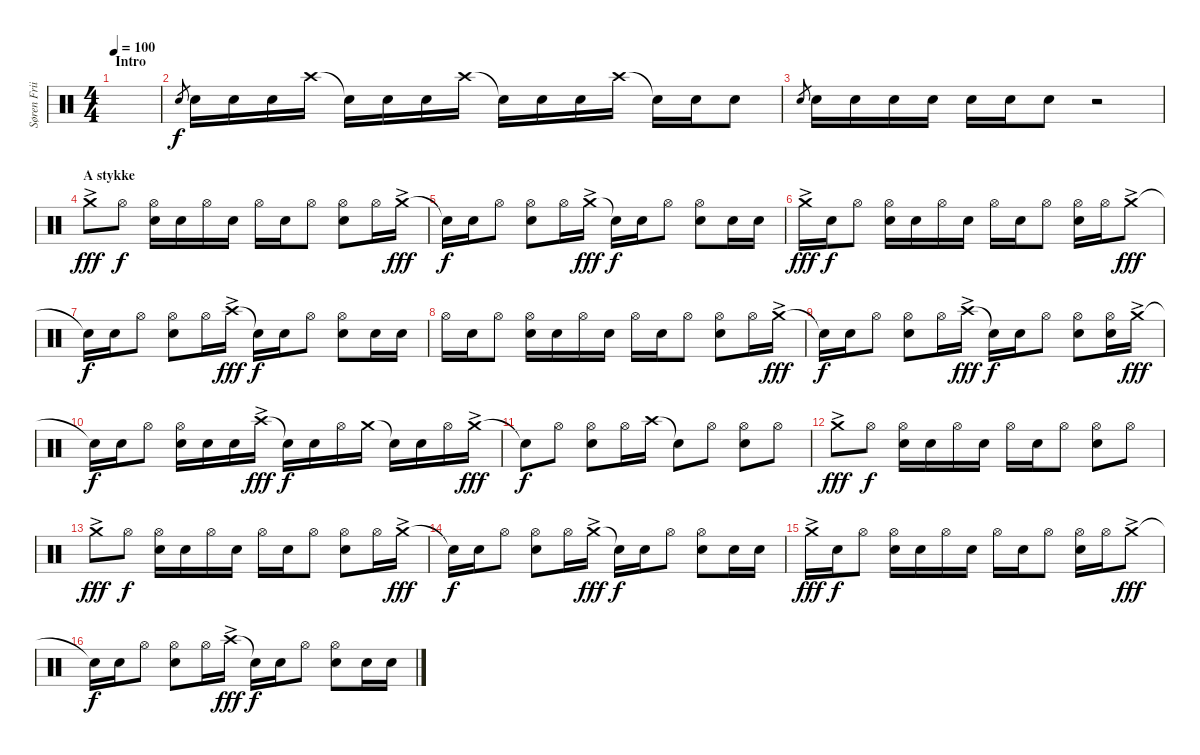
\track ("Søren Friis (Drums)" "Søren Frii") {instrument percussion}
\staff {score}
\articulation defaults
\ts (4 4)
\section ("" "Intro")
\tempo 100
\clef neutral
\ks c
|
"Snare (hit) 2".8{gr} "Snare (hit) 2".16 "Snare (hit) 2".16 "Snare (hit) 2".16 "Crash high (hit)".16 "Snare (hit)"{t}.16 "Snare (hit) 2".16 "Snare (hit) 2".16 "Crash high (hit)".16 "Snare (hit)"{t}.16 "Snare (hit) 2".16 "Snare (hit) 2".16 "Crash high (hit)".16 "Snare (hit)"{t}.16 "Snare (hit) 2".16 "Snare (hit) 2".8 |
"Snare (hit) 2".8{gr} "Snare (hit) 2".16 "Snare (hit) 2".16 "Snare (hit) 2".16 "Snare (hit) 2".16 "Snare (hit) 2".16 "Snare (hit) 2".16 "Snare (hit) 2".8 r.2 |
\section ("" "A stykke")
"Crash medium (hit)"{ac}.8{dy fff} "Hi-Hat (open)".8{dy f} ("Hi-Hat (open)" "Snare (hit) 2").16 "Snare (hit) 2".16 "Hi-Hat (open)".16 "Snare (hit) 2".16 "Hi-Hat (open)".16 "Snare (hit) 2".16 "Hi-Hat (open)".8 ("Snare (hit) 2" "Hi-Hat (open)").8 "Hi-Hat (open)".16 "Crash medium (hit)"{ac}.16{dy fff} |
"Snare (hit)"{t}.16{dy f} "Snare (hit) 2".16 "Hi-Hat (open)".8 ("Hi-Hat (open)" "Snare (hit) 2").8 "Hi-Hat (open)".16 "Crash medium (hit)"{ac}.16{dy fff} "Snare (hit)"{t}.16{dy f} "Snare (hit) 2".16 "Hi-Hat (open)".8 ("Hi-Hat (open)" "Snare (hit) 2").8 "Snare (hit) 2".16 "Snare (hit) 2".16 |
"Crash medium (hit)"{ac}.16{dy fff} "Snare (hit) 2".16{dy f} "Hi-Hat (open)".8 ("Hi-Hat (open)" "Snare (hit) 2").16 "Snare (hit) 2".16 "Hi-Hat (open)".16 "Snare (hit) 2".16 "Hi-Hat (open)".16 "Snare (hit) 2".16 "Hi-Hat (open)".8 ("Hi-Hat (open)" "Snare (hit) 2").16 "Hi-Hat (open)".16 "Crash medium (hit)"{ac}.8{dy fff} |
"Snare (hit)"{t}.16{dy f} "Snare (hit) 2".16 "Hi-Hat (open)".8 ("Hi-Hat (open)" "Snare (hit) 2").8 "Hi-Hat (open)".16 "Crash high (hit)"{ac}.16{dy fff} "Snare (hit)"{t}.16{dy f} "Snare (hit) 2".16 "Hi-Hat (open)".8 ("Hi-Hat (open)" "Snare (hit) 2").8 "Snare (hit) 2".16 "Snare (hit) 2".16 |
"Hi-Hat (open)".16 "Snare (hit) 2".16 "Hi-Hat (open)".8 ("Hi-Hat (open)" "Snare (hit) 2").16 "Snare (hit) 2".16 "Hi-Hat (open)".16 "Snare (hit) 2".16 "Hi-Hat (open)".16 "Snare (hit) 2".16 "Hi-Hat (open)".8 ("Snare (hit) 2" "Hi-Hat (open)").8 "Hi-Hat (open)".16 "Crash medium (hit)"{ac}.16{dy fff} |
"Snare (hit)"{t}.16{dy f} "Snare (hit) 2".16 "Hi-Hat (open)".8 ("Hi-Hat (open)" "Snare (hit) 2").8 "Hi-Hat (open)".16 "Crash high (hit)"{ac}.16{dy fff} "Snare (hit)"{t}.16{dy f} "Snare (hit) 2".16 "Hi-Hat (open)".8 ("Hi-Hat (open)" "Snare (hit) 2").8 ("Hi-Hat (open)" "Snare (hit) 2").16 "Crash medium (hit)"{ac}.16{dy fff} |
"Snare (hit)"{t}.16{dy f} "Snare (hit) 2".16 "Hi-Hat (open)".8 ("Hi-Hat (open)" "Snare (hit) 2").16 "Snare (hit) 2".16 "Snare (hit) 2".16 "Crash high (hit)"{ac}.16{dy fff} "Snare (hit)"{t}.16{dy f} "Snare (hit) 2".16 "Hi-Hat (open)".16 "Crash medium (hit)".16 "Snare (hit)"{t}.16 "Snare (hit) 2".16 "Hi-Hat (open)".16 "Crash medium (hit)"{ac}.16{dy fff} |
"Snare (hit)"{t}.8{dy f} "Hi-Hat (open)".8 ("Hi-Hat (open)" "Snare (hit) 2").8 "Hi-Hat (open)".16 "Crash high (hit)".16 "Snare (hit)"{t}.8 "Hi-Hat (open)".8 ("Hi-Hat (open)" "Snare (hit) 2").8 "Hi-Hat (open)".8 |
"Crash medium (hit)"{ac}.8{dy fff} "Hi-Hat (open)".8{dy f} ("Hi-Hat (open)" "Snare (hit) 2").16 "Snare (hit) 2".16 "Hi-Hat (open)".16 "Snare (hit) 2".16 "Hi-Hat (open)".16 "Snare (hit) 2".16 "Hi-Hat (open)".8 ("Hi-Hat (open)" "Snare (hit) 2").8 "Hi-Hat (open)".8 |
"Crash medium (hit)"{ac}.8{dy fff} "Hi-Hat (open)".8{dy f} ("Hi-Hat (open)" "Snare (hit) 2").16 "Snare (hit) 2".16 "Hi-Hat (open)".16 "Snare (hit) 2".16 "Hi-Hat (open)".16 "Snare (hit) 2".16 "Hi-Hat (open)".8 ("Snare (hit) 2" "Hi-Hat (open)").8 "Hi-Hat (open)".16 "Crash medium (hit)"{ac}.16{dy fff} |
"Snare (hit)"{t}.16{dy f} "Snare (hit) 2".16 "Hi-Hat (open)".8 ("Hi-Hat (open)" "Snare (hit) 2").8 "Hi-Hat (open)".16 "Crash medium (hit)"{ac}.16{dy fff} "Snare (hit)"{t}.16{dy f} "Snare (hit) 2".16 "Hi-Hat (open)".8 ("Hi-Hat (open)" "Snare (hit) 2").8 "Snare (hit) 2".16 "Snare (hit) 2".16 |
"Crash medium (hit)"{ac}.16{dy fff} "Snare (hit) 2".16{dy f} "Hi-Hat (open)".8 ("Hi-Hat (open)" "Snare (hit) 2").16 "Snare (hit) 2".16 "Hi-Hat (open)".16 "Snare (hit) 2".16 "Hi-Hat (open)".16 "Snare (hit) 2".16 "Hi-Hat (open)".8 ("Hi-Hat (open)" "Snare (hit) 2").16 "Hi-Hat (open)".16 "Crash medium (hit)"{ac}.8{dy fff} |
"Snare (hit)"{t}.16{dy f} "Snare (hit) 2".16 "Hi-Hat (open)".8 ("Hi-Hat (open)" "Snare (hit) 2").8 "Hi-Hat (open)".16 "Crash high (hit)"{ac}.16{dy fff} "Snare (hit)"{t}.16{dy f} "Snare (hit) 2".16 "Hi-Hat (open)".8 ("Hi-Hat (open)" "Snare (hit) 2").8 "Snare (hit) 2".16 "Snare (hit) 2".16
